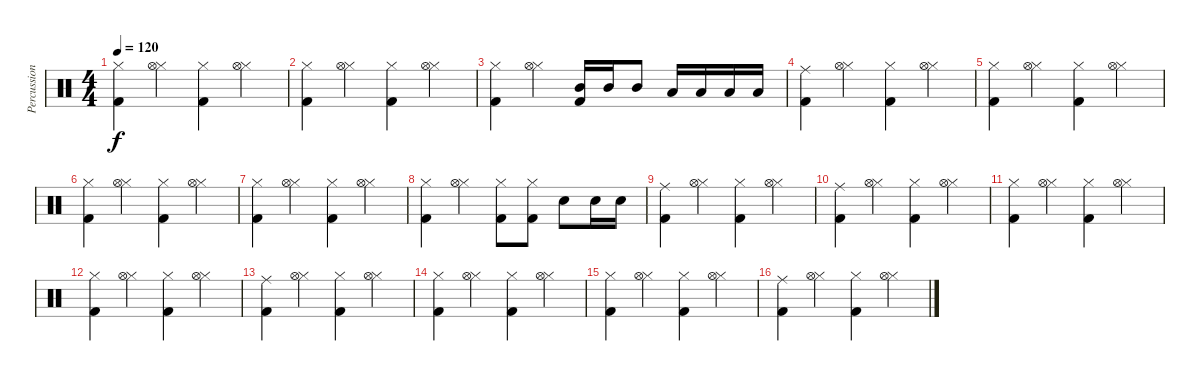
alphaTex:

\track ("Percussion" "Percussion") {instrument percussion}
\staff {score}
\articulation defaults
\ts (4 4)
\tempo 120
\clef neutral
\ks c
("Kick (hit) 2" "Hi-Hat (closed)").4{dy f} ("Hi-Hat (closed)" "Hi-Hat (open)").4 ("Kick (hit) 2" "Hi-Hat (closed)").4 ("Hi-Hat (closed)" "Hi-Hat (open)").4 |
("Kick (hit) 2" "Hi-Hat (closed)").4 ("Hi-Hat (closed)" "Hi-Hat (open)").4 ("Kick (hit) 2" "Hi-Hat (closed)").4 ("Hi-Hat (closed)" "Hi-Hat (open)").4 |
("Kick (hit) 2" "Hi-Hat (closed)").4 ("Hi-Hat (closed)" "Hi-Hat (open)").4 ("Kick (hit) 2" "Mid Tom (hit)").16 "Mid Tom (hit)".16 "Mid Tom (hit)".8 "Low Tom (hit)".16 "Low Tom (hit)".16 "Low Tom (hit)".16 "Low Tom (hit)".16 |
("Kick (hit) 2" "Ride (middle)").4 ("Hi-Hat (closed)" "Hi-Hat (open)").4 ("Kick (hit) 2" "Hi-Hat (closed)").4 ("Hi-Hat (closed)" "Hi-Hat (open)").4 |
("Kick (hit) 2" "Hi-Hat (closed)").4 ("Hi-Hat (closed)" "Hi-Hat (open)").4 ("Kick (hit) 2" "Hi-Hat (closed)").4 ("Hi-Hat (closed)" "Hi-Hat (open)").4 |
("Kick (hit) 2" "Hi-Hat (closed)").4 ("Hi-Hat (closed)" "Hi-Hat (open)").4 ("Kick (hit) 2" "Hi-Hat (closed)").4 ("Hi-Hat (closed)" "Hi-Hat (open)").4 |
("Kick (hit) 2" "Hi-Hat (closed)").4 ("Hi-Hat (closed)" "Hi-Hat (open)").4 ("Kick (hit) 2" "Hi-Hat (closed)").4 ("Hi-Hat (closed)" "Hi-Hat (open)").4 |
("Kick (hit) 2" "Hi-Hat (closed)").4 ("Hi-Hat (closed)" "Hi-Hat (open)").4 ("Kick (hit) 2" "Hi-Hat (closed)").8 ("Kick (hit) 2" "Hi-Hat (closed)").8 "Snare (hit) 2".8 "Snare (hit) 2".16 "Snare (hit) 2".16 |
("Kick (hit) 2" "Ride (middle)").4 ("Hi-Hat (closed)" "Hi-Hat (open)").4 ("Kick (hit) 2" "Hi-Hat (closed)").4 ("Hi-Hat (closed)" "Hi-Hat (open)").4 |
("Kick (hit) 2" "Ride (middle)").4 ("Hi-Hat (closed)" "Hi-Hat (open)").4 ("Kick (hit) 2" "Hi-Hat (closed)").4 ("Hi-Hat (closed)" "Hi-Hat (open)").4 |
("Kick (hit) 2" "Hi-Hat (closed)").4 ("Hi-Hat (closed)" "Hi-Hat (open)").4 ("Kick (hit) 2" "Hi-Hat (closed)").4 ("Hi-Hat (closed)" "Hi-Hat (open)").4 |
("Kick (hit) 2" "Hi-Hat (closed)").4 ("Hi-Hat (closed)" "Hi-Hat (open)").4 ("Kick (hit) 2" "Hi-Hat (closed)").4 ("Hi-Hat (closed)" "Hi-Hat (open)").4 |
("Kick (hit) 2" "Ride (middle)").4 ("Hi-Hat (closed)" "Hi-Hat (open)").4 ("Kick (hit) 2" "Hi-Hat (closed)").4 ("Hi-Hat (closed)" "Hi-Hat (open)").4 |
("Kick (hit) 2" "Hi-Hat (closed)").4 ("Hi-Hat (closed)" "Hi-Hat (open)").4 ("Kick (hit) 2" "Hi-Hat (closed)").4 ("Hi-Hat (closed)" "Hi-Hat (open)").4 |
("Kick (hit) 2" "Hi-Hat (closed)").4 ("Hi-Hat (closed)" "Hi-Hat (open)").4 ("Kick (hit) 2" "Hi-Hat (closed)").4 ("Hi-Hat (closed)" "Hi-Hat (open)").4 |
("Kick (hit) 2" "Ride (middle)").4 ("Hi-Hat (closed)" "Hi-Hat (open)").4 ("Kick (hit) 2" "Hi-Hat (closed)").4 ("Hi-Hat (closed)" "Hi-Hat (open)").4
